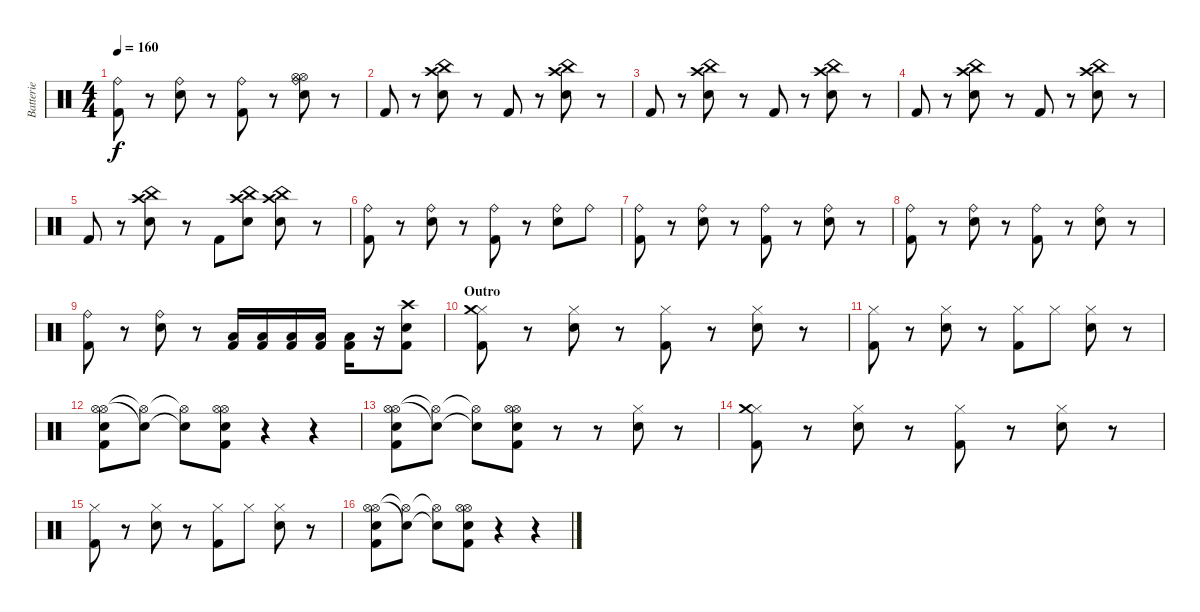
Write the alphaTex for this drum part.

\track ("Batterie" "Batterie") {instrument percussion}
\staff {score}
\articulation defaults
\ts (4 4)
\tempo 160
\clef neutral
\ks c
("Ride (bell)" "Kick (hit) 2").8{dy f} r.8 ("Ride (bell)" "Snare (hit) 2").8 r.8 ("Ride (bell)" "Kick (hit) 2").8 r.8 ("Hi-Hat (open)" "Hi-Hat (open)" "Ride (bell)" "Snare (hit) 2").8 r.8 |
"Kick (hit) 2".8 r.8 ("Crash high (hit)" "China (hit)" "Snare (hit) 2").8 r.8 "Kick (hit) 2".8 r.8 ("Crash high (hit)" "China (hit)" "Snare (hit) 2").8 r.8 |
"Kick (hit) 2".8 r.8 ("Crash high (hit)" "China (hit)" "Snare (hit) 2").8 r.8 "Kick (hit) 2".8 r.8 ("Crash high (hit)" "China (hit)" "Snare (hit) 2").8 r.8 |
"Kick (hit) 2".8 r.8 ("Crash high (hit)" "China (hit)" "Snare (hit) 2").8 r.8 "Kick (hit) 2".8 r.8 ("Crash high (hit)" "China (hit)" "Snare (hit) 2").8 r.8 |
"Kick (hit) 2".8 r.8 ("Crash high (hit)" "China (hit)" "Snare (hit) 2").8 r.8 "Kick (hit) 2".8 ("Crash high (hit)" "China (hit)" "Snare (hit) 2").8 ("Crash high (hit)" "China (hit)" "Snare (hit) 2").8 r.8 |
("Ride (bell)" "Kick (hit) 2").8 r.8 ("Ride (bell)" "Snare (hit) 2").8 r.8 ("Ride (bell)" "Kick (hit) 2").8 r.8 ("Ride (bell)" "Snare (hit) 2").8 "Ride (bell)".8 |
("Ride (bell)" "Kick (hit) 2").8 r.8 ("Ride (bell)" "Snare (hit) 2").8 r.8 ("Ride (bell)" "Kick (hit) 2").8 r.8 ("Ride (bell)" "Snare (hit) 2").8 r.8 |
("Ride (bell)" "Kick (hit) 2").8 r.8 ("Ride (bell)" "Snare (hit) 2").8 r.8 ("Ride (bell)" "Kick (hit) 2").8 r.8 ("Ride (bell)" "Snare (hit) 2").8 r.8 |
("Ride (bell)" "Kick (hit) 2").8 r.8 ("Ride (bell)" "Snare (hit) 2").8 r.8 ("Low Tom (hit)" "Kick (hit) 2").16 ("Low Tom (hit)" "Kick (hit) 2").16 ("Low Tom (hit)" "Kick (hit) 2").16 ("Low Tom (hit)" "Kick (hit) 2").16 ("Low Tom (hit)" "Kick (hit) 2").16 r.16 ("Crash high (hit)" "Snare (hit) 2" "Kick (hit) 2").8 |
\section ("" "Outro")
("Hi-Hat (closed)" "Crash medium (hit)" "Kick (hit) 2").8 r.8 ("Hi-Hat (closed)" "Snare (hit) 2").8 r.8 ("Hi-Hat (closed)" "Kick (hit) 2").8 r.8 ("Hi-Hat (closed)" "Snare (hit) 2").8 r.8 |
("Hi-Hat (closed)" "Kick (hit) 2").8 r.8 ("Hi-Hat (closed)" "Snare (hit) 2").8 r.8 ("Hi-Hat (closed)" "Kick (hit) 2").8 "Hi-Hat (closed)".8 ("Hi-Hat (closed)" "Snare (hit) 2").8 r.8 |
("Hi-Hat (open)" "Hi-Hat (open)" "Snare (hit) 2" "Kick (hit) 2").8 ("Hi-Hat (open)"{t} "Snare (hit)"{t}).8 ("Hi-Hat (open)"{t} "Snare (hit)"{t}).8 ("Hi-Hat (open)" "Hi-Hat (open)" "Snare (hit) 2" "Kick (hit) 2").8 r.4 r.4 |
("Hi-Hat (open)" "Hi-Hat (open)" "Snare (hit) 2" "Kick (hit) 2").8 ("Hi-Hat (open)"{t} "Snare (hit)"{t}).8 ("Hi-Hat (open)"{t} "Snare (hit)"{t}).8 ("Hi-Hat (open)" "Hi-Hat (open)" "Snare (hit) 2" "Kick (hit) 2").8 r.8 r.8 ("Hi-Hat (closed)" "Snare (hit) 2").8 r.8 |
("Hi-Hat (closed)" "Crash medium (hit)" "Kick (hit) 2").8 r.8 ("Hi-Hat (closed)" "Snare (hit) 2").8 r.8 ("Hi-Hat (closed)" "Kick (hit) 2").8 r.8 ("Hi-Hat (closed)" "Snare (hit) 2").8 r.8 |
("Hi-Hat (closed)" "Kick (hit) 2").8 r.8 ("Hi-Hat (closed)" "Snare (hit) 2").8 r.8 ("Hi-Hat (closed)" "Kick (hit) 2").8 "Hi-Hat (closed)".8 ("Hi-Hat (closed)" "Snare (hit) 2").8 r.8 |
("Hi-Hat (open)" "Hi-Hat (open)" "Snare (hit) 2" "Kick (hit) 2").8 ("Hi-Hat (open)"{t} "Snare (hit)"{t}).8 ("Hi-Hat (open)"{t} "Snare (hit)"{t}).8 ("Hi-Hat (open)" "Hi-Hat (open)" "Snare (hit) 2" "Kick (hit) 2").8 r.4 r.4
